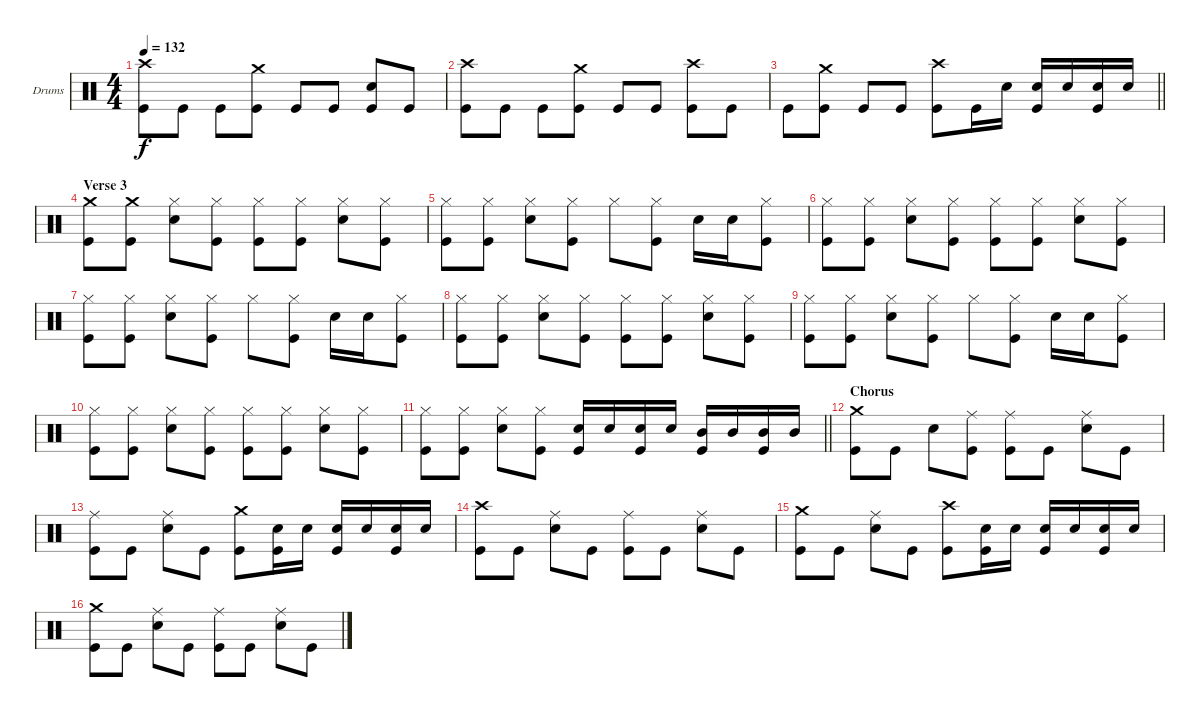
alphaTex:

\bracketExtendMode groupsimilarinstruments
\firstSystemTrackNameOrientation horizontal
\otherSystemsTrackNameOrientation horizontal
\track ("Drumkit" "Drums") {instrument percussion}
\staff {score}
\articulation defaults
\ts (4 4)
\tempo 132
\clef neutral
\ks c
("Crash high (hit)" "Kick (hit)").8{dy f} "Kick (hit)".8 "Kick (hit)".8 ("Crash medium (hit)" "Kick (hit)").8 "Kick (hit)".8 "Kick (hit)".8 ("Snare (hit) 2" "Kick (hit)").8 "Kick (hit)".8 |
("Crash high (hit)" "Kick (hit)").8 "Kick (hit)".8 "Kick (hit)".8 ("Crash medium (hit)" "Kick (hit)").8 "Kick (hit)".8 "Kick (hit)".8 ("Crash high (hit)" "Kick (hit)").8 "Kick (hit)".8 |
\barLineRight lightlight "Kick (hit)".8
("Crash medium (hit)" "Kick (hit)").8 "Kick (hit)".8 "Kick (hit)".8 ("Crash high (hit)" "Kick (hit)").8 "Kick (hit)".16 "Snare (hit) 2".16 ("Snare (hit) 2" "Kick (hit)").16 "Snare (hit) 2".16 ("Snare (hit) 2" "Kick (hit)").16 "Snare (hit) 2".16 |
\section ("" "Verse 3")
("Crash medium (hit)" "Kick (hit)").8 ("Crash medium (hit)" "Kick (hit)").8 ("Hi-Hat (closed)" "Snare (hit) 2").8 ("Hi-Hat (closed)" "Kick (hit)").8 ("Hi-Hat (closed)" "Kick (hit)").8 ("Hi-Hat (closed)" "Kick (hit)").8 ("Hi-Hat (closed)" "Snare (hit) 2").8 ("Hi-Hat (closed)" "Kick (hit)").8 |
("Hi-Hat (closed)" "Kick (hit)").8 ("Hi-Hat (closed)" "Kick (hit)").8 ("Hi-Hat (closed)" "Snare (hit) 2").8 ("Hi-Hat (closed)" "Kick (hit)").8 "Hi-Hat (closed)".8 ("Hi-Hat (closed)" "Kick (hit)").8 "Snare (hit) 2".16 "Snare (hit) 2".16 ("Hi-Hat (closed)" "Kick (hit)").8 |
("Hi-Hat (closed)" "Kick (hit)").8 ("Hi-Hat (closed)" "Kick (hit)").8 ("Hi-Hat (closed)" "Snare (hit) 2").8 ("Hi-Hat (closed)" "Kick (hit)").8 ("Hi-Hat (closed)" "Kick (hit)").8 ("Hi-Hat (closed)" "Kick (hit)").8 ("Hi-Hat (closed)" "Snare (hit) 2").8 ("Hi-Hat (closed)" "Kick (hit)").8 |
("Hi-Hat (closed)" "Kick (hit)").8 ("Hi-Hat (closed)" "Kick (hit)").8 ("Hi-Hat (closed)" "Snare (hit) 2").8 ("Hi-Hat (closed)" "Kick (hit)").8 "Hi-Hat (closed)".8 ("Hi-Hat (closed)" "Kick (hit)").8 "Snare (hit) 2".16 "Snare (hit) 2".16 ("Hi-Hat (closed)" "Kick (hit)").8 |
("Hi-Hat (closed)" "Kick (hit)").8 ("Hi-Hat (closed)" "Kick (hit)").8 ("Hi-Hat (closed)" "Snare (hit) 2").8 ("Hi-Hat (closed)" "Kick (hit)").8 ("Hi-Hat (closed)" "Kick (hit)").8 ("Hi-Hat (closed)" "Kick (hit)").8 ("Hi-Hat (closed)" "Snare (hit) 2").8 ("Hi-Hat (closed)" "Kick (hit)").8 |
("Hi-Hat (closed)" "Kick (hit)").8 ("Hi-Hat (closed)" "Kick (hit)").8 ("Hi-Hat (closed)" "Snare (hit) 2").8 ("Hi-Hat (closed)" "Kick (hit)").8 "Hi-Hat (closed)".8 ("Hi-Hat (closed)" "Kick (hit)").8 "Snare (hit) 2".16 "Snare (hit) 2".16 ("Hi-Hat (closed)" "Kick (hit)").8 |
("Hi-Hat (closed)" "Kick (hit)").8 ("Hi-Hat (closed)" "Kick (hit)").8 ("Hi-Hat (closed)" "Snare (hit) 2").8 ("Hi-Hat (closed)" "Kick (hit)").8 ("Hi-Hat (closed)" "Kick (hit)").8 ("Hi-Hat (closed)" "Kick (hit)").8 ("Hi-Hat (closed)" "Snare (hit) 2").8 ("Hi-Hat (closed)" "Kick (hit)").8 |
\barLineRight lightlight
("Hi-Hat (closed)" "Kick (hit)").8 ("Hi-Hat (closed)" "Kick (hit)").8 ("Hi-Hat (closed)" "Snare (hit) 2").8 ("Hi-Hat (closed)" "Kick (hit)").8 ("Snare (hit) 2" "Kick (hit)").16 "Snare (hit) 2".16 ("Snare (hit) 2" "Kick (hit)").16 "Snare (hit) 2".16 ("Mid Tom (hit)" "Kick (hit)").16 "Mid Tom (hit)".16 ("Mid Tom (hit)" "Kick (hit)").16 "Mid Tom (hit)".16 |
\section ("" "Chorus")
("Crash medium (hit)" "Kick (hit)").8 "Kick (hit)".8 "Snare (hit) 2".8 ("Ride (middle)" "Kick (hit)").8 ("Ride (middle)" "Kick (hit)").8 "Kick (hit)".8 ("Ride (middle)" "Snare (hit) 2").8 "Kick (hit)".8 |
("Ride (middle)" "Kick (hit)").8 "Kick (hit)".8 ("Ride (middle)" "Snare (hit) 2").8 "Kick (hit)".8 ("Crash medium (hit)" "Kick (hit)").8 ("Snare (hit) 2" "Kick (hit)").16 "Snare (hit) 2".16 ("Snare (hit) 2" "Kick (hit)").16 "Snare (hit) 2".16 ("Snare (hit) 2" "Kick (hit)").16 "Snare (hit) 2".16 |
("Crash high (hit)" "Kick (hit)").8 "Kick (hit)".8 ("Ride (middle)" "Snare (hit) 2").8 "Kick (hit)".8 ("Ride (middle)" "Kick (hit)").8 "Kick (hit)".8 ("Ride (middle)" "Snare (hit) 2").8 "Kick (hit)".8 |
("Crash medium (hit)" "Kick (hit)").8 "Kick (hit)".8 ("Ride (middle)" "Snare (hit) 2").8 "Kick (hit)".8 ("Crash high (hit)" "Kick (hit)").8 ("Snare (hit) 2" "Kick (hit)").16 "Snare (hit) 2".16 ("Snare (hit) 2" "Kick (hit)").16 "Snare (hit) 2".16 ("Snare (hit) 2" "Kick (hit)").16 "Snare (hit) 2".16 |
("Crash medium (hit)" "Kick (hit)").8 "Kick (hit)".8 ("Ride (middle)" "Snare (hit) 2").8 "Kick (hit)".8 ("Ride (middle)" "Kick (hit)").8 "Kick (hit)".8 ("Ride (middle)" "Snare (hit) 2").8 "Kick (hit)".8
